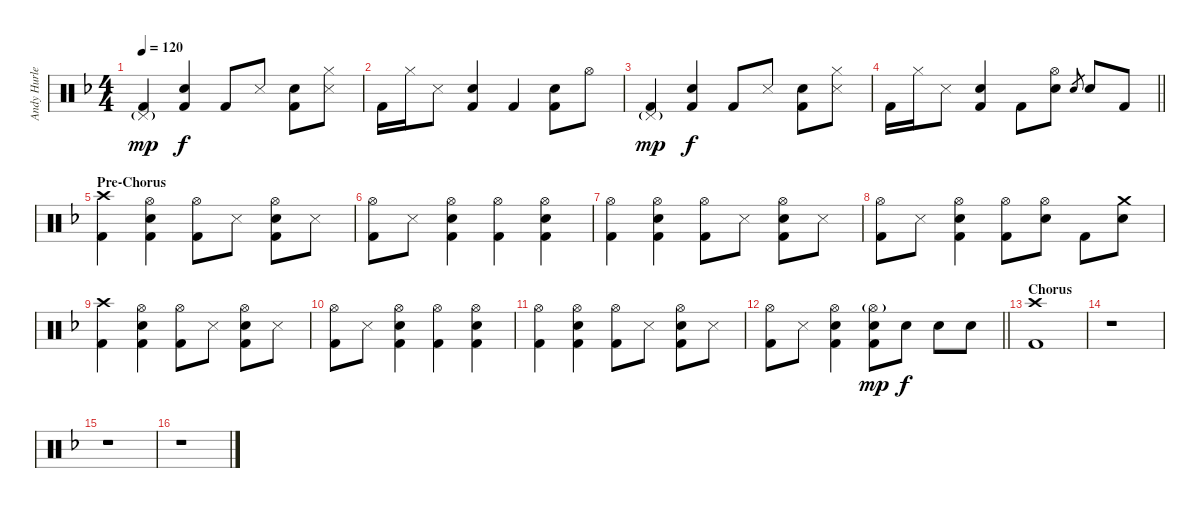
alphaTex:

\track ("Andy Hurley" "Andy Hurle") {instrument percussion}
\staff {score}
\articulation defaults
\ts (4 4)
\tempo 120
\clef neutral
\ks dminor
("Pedal Hi-Hat (hit)"{g} "Kick (hit) 2").4{dy mp} ("Snare (hit) 2" "Kick (hit) 2").4{dy f} "Kick (hit) 2".8 "Snare (side stick) 3".8 ("Snare (hit) 2" "Kick (hit) 2").8 ("Hi-Hat (closed)" "Snare (side stick) 3").8 |
"Kick (hit) 2".16 "Hi-Hat (closed)".16 "Snare (side stick) 3".8 ("Snare (hit) 2" "Kick (hit) 2").4 "Kick (hit) 2".4 ("Snare (hit) 2" "Kick (hit) 2").8 "Hi-Hat (open)".8 |
("Pedal Hi-Hat (hit)"{g} "Kick (hit) 2").4{dy mp} ("Snare (hit) 2" "Kick (hit) 2").4{dy f} "Kick (hit) 2".8 "Snare (side stick) 3".8 ("Snare (hit) 2" "Kick (hit) 2").8 ("Hi-Hat (closed)" "Snare (side stick) 3").8 |
\barLineRight lightlight "Kick (hit) 2".16 "Hi-Hat (closed)".16 "Snare (side stick) 3".8
("Snare (hit) 2" "Kick (hit) 2").4 "Kick (hit) 2".8 ("Hi-Hat (open)" "Snare (hit) 2").8 "Snare (hit) 2".8{gr} "Snare (hit) 2".8 "Kick (hit) 2".8 |
\section ("" "Pre-Chorus")
("Crash high (hit)" "Kick (hit) 2").4 ("Hi-Hat (open)" "Snare (hit) 2" "Kick (hit) 2").4 ("Hi-Hat (open)" "Kick (hit) 2").8 "Snare (side stick) 3".8 ("Hi-Hat (open)" "Snare (hit) 2" "Kick (hit) 2").8 "Snare (side stick) 3".8 |
("Hi-Hat (open)" "Kick (hit) 2").8 "Snare (side stick) 3".8 ("Hi-Hat (open)" "Snare (hit) 2" "Kick (hit) 2").4 ("Hi-Hat (open)" "Kick (hit) 2").4 ("Hi-Hat (open)" "Snare (hit) 2" "Kick (hit) 2").4 |
("Hi-Hat (open)" "Kick (hit) 2").4 ("Hi-Hat (open)" "Snare (hit) 2" "Kick (hit) 2").4 ("Hi-Hat (open)" "Kick (hit) 2").8 "Snare (side stick) 3".8 ("Hi-Hat (open)" "Snare (hit) 2" "Kick (hit) 2").8 "Snare (side stick) 3".8 |
("Hi-Hat (open)" "Kick (hit) 2").8 "Snare (side stick) 3".8 ("Hi-Hat (open)" "Snare (hit) 2" "Kick (hit) 2").4 ("Hi-Hat (open)" "Kick (hit) 2").8 ("Hi-Hat (open)" "Snare (hit) 2").8 "Kick (hit) 2".8 ("Crash medium (hit)" "Snare (hit) 2").8 |
("Crash high (hit)" "Kick (hit) 2").4 ("Hi-Hat (open)" "Snare (hit) 2" "Kick (hit) 2").4 ("Hi-Hat (open)" "Kick (hit) 2").8 "Snare (side stick) 3".8 ("Hi-Hat (open)" "Snare (hit) 2" "Kick (hit) 2").8 "Snare (side stick) 3".8 |
("Hi-Hat (open)" "Kick (hit) 2").8 "Snare (side stick) 3".8 ("Hi-Hat (open)" "Snare (hit) 2" "Kick (hit) 2").4 ("Hi-Hat (open)" "Kick (hit) 2").4 ("Hi-Hat (open)" "Snare (hit) 2" "Kick (hit) 2").4 |
("Hi-Hat (open)" "Kick (hit) 2").4 ("Hi-Hat (open)" "Snare (hit) 2" "Kick (hit) 2").4 ("Hi-Hat (open)" "Kick (hit) 2").8 "Snare (side stick) 3".8 ("Hi-Hat (open)" "Snare (hit) 2" "Kick (hit) 2").8 "Snare (side stick) 3".8 |
\barLineRight lightlight
("Hi-Hat (open)" "Kick (hit) 2").8 "Snare (side stick) 3".8 ("Hi-Hat (open)" "Snare (hit) 2" "Kick (hit) 2").4 ("Hi-Hat (open)"{g} "Snare (hit) 2" "Kick (hit) 2").8{dy mp} "Snare (hit) 2".8{dy f} "Snare (hit) 2".8 "Snare (hit) 2".8 |
\section ("" "Chorus")
("Crash high (hit)" "Kick (hit) 2").1 |
r.1 |
r.1 |
r.1
